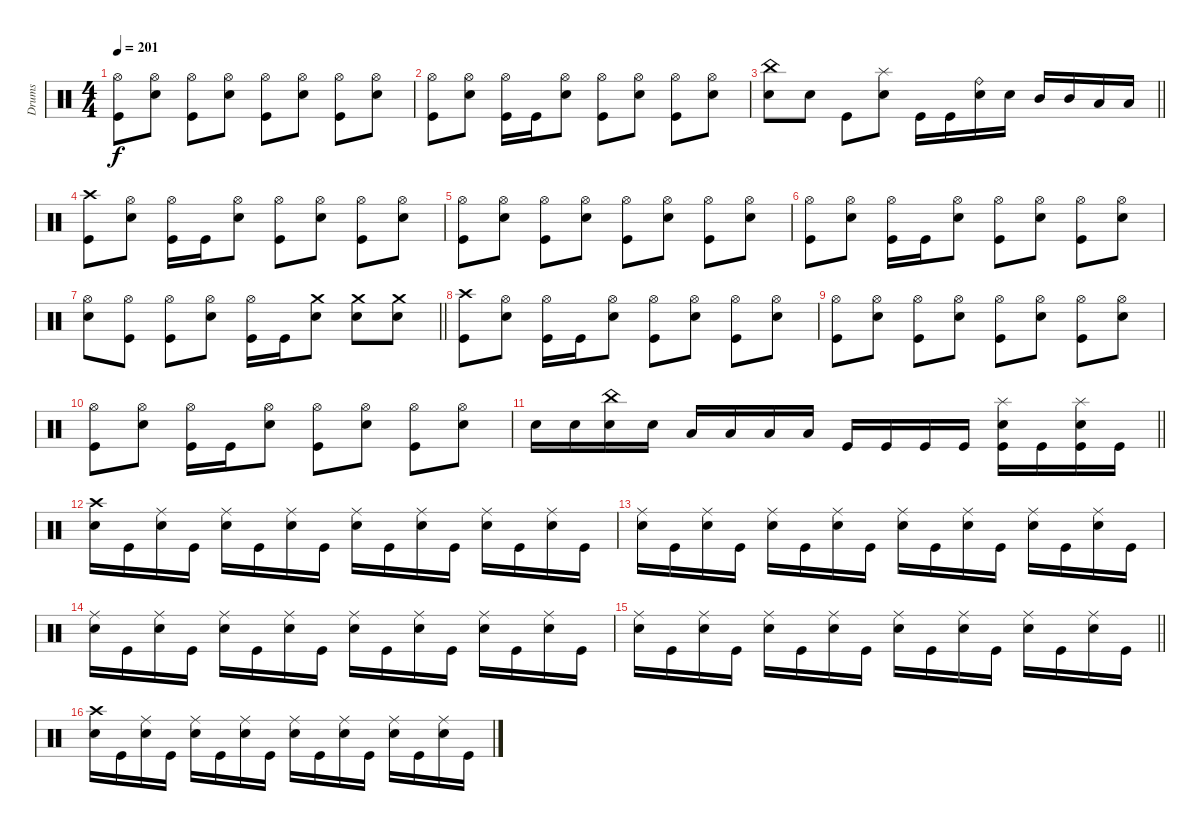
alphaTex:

\track ("Drums" "Drums") {instrument percussion}
\staff
\articulation defaults
\ts (4 4)
\tempo 201
\clef neutral
\ks c
("Hi-Hat (open)" "Kick (hit)").8{dy f} ("Hi-Hat (open)" "Electric Snare (hit)").8 ("Hi-Hat (open)" "Kick (hit)").8 ("Hi-Hat (open)" "Electric Snare (hit)").8 ("Hi-Hat (open)" "Kick (hit)").8 ("Hi-Hat (open)" "Electric Snare (hit)").8 ("Hi-Hat (open)" "Kick (hit)").8 ("Hi-Hat (open)" "Electric Snare (hit)").8 |
("Hi-Hat (open)" "Kick (hit)").8 ("Hi-Hat (open)" "Electric Snare (hit)").8 ("Hi-Hat (open)" "Kick (hit)").16 "Kick (hit)".16 ("Hi-Hat (open)" "Electric Snare (hit)").8 ("Hi-Hat (open)" "Kick (hit)").8 ("Hi-Hat (open)" "Electric Snare (hit)").8 ("Hi-Hat (open)" "Kick (hit)").8 ("Hi-Hat (open)" "Electric Snare (hit)").8 |
\barLineRight lightlight
("China (hit)" "Electric Snare (hit)").8 "Electric Snare (hit)".8 "Kick (hit)".8 ("Splash (hit)" "Electric Snare (hit)").8 "Kick (hit)".16 "Kick (hit)".16 ("Ride (bell)" "Electric Snare (hit)").16 "Electric Snare (hit)".16 "Mid Tom (hit)".16 "Mid Tom (hit)".16 "Low Tom (hit)".16 "Low Tom (hit)".16 |
("Crash high (hit)" "Kick (hit)").8 ("Hi-Hat (open)" "Electric Snare (hit)").8 ("Hi-Hat (open)" "Kick (hit)").16 "Kick (hit)".16 ("Hi-Hat (open)" "Electric Snare (hit)").8 ("Hi-Hat (open)" "Kick (hit)").8 ("Hi-Hat (open)" "Electric Snare (hit)").8 ("Hi-Hat (open)" "Kick (hit)").8 ("Hi-Hat (open)" "Electric Snare (hit)").8 |
("Hi-Hat (open)" "Kick (hit)").8 ("Hi-Hat (open)" "Electric Snare (hit)").8 ("Hi-Hat (open)" "Kick (hit)").8 ("Hi-Hat (open)" "Electric Snare (hit)").8 ("Hi-Hat (open)" "Kick (hit)").8 ("Hi-Hat (open)" "Electric Snare (hit)").8 ("Hi-Hat (open)" "Kick (hit)").8 ("Hi-Hat (open)" "Electric Snare (hit)").8 |
("Hi-Hat (open)" "Kick (hit)").8 ("Hi-Hat (open)" "Electric Snare (hit)").8 ("Hi-Hat (open)" "Kick (hit)").16 "Kick (hit)".16 ("Hi-Hat (open)" "Electric Snare (hit)").8 ("Hi-Hat (open)" "Kick (hit)").8 ("Hi-Hat (open)" "Electric Snare (hit)").8 ("Hi-Hat (open)" "Kick (hit)").8 ("Hi-Hat (open)" "Electric Snare (hit)").8 |
\barLineRight lightlight
("Hi-Hat (open)" "Electric Snare (hit)").8 ("Hi-Hat (open)" "Kick (hit)").8 ("Hi-Hat (open)" "Kick (hit)").8 ("Hi-Hat (open)" "Electric Snare (hit)").8 ("Hi-Hat (open)" "Kick (hit)").16 "Kick (hit)".16 ("Crash medium (hit)" "Electric Snare (hit)").8 ("Crash medium (hit)" "Electric Snare (hit)").8 ("Crash medium (hit)" "Electric Snare (hit)").8 |
("Crash high (hit)" "Kick (hit)").8 ("Hi-Hat (open)" "Electric Snare (hit)").8 ("Hi-Hat (open)" "Kick (hit)").16 "Kick (hit)".16 ("Hi-Hat (open)" "Electric Snare (hit)").8 ("Hi-Hat (open)" "Kick (hit)").8 ("Hi-Hat (open)" "Electric Snare (hit)").8 ("Hi-Hat (open)" "Kick (hit)").8 ("Hi-Hat (open)" "Electric Snare (hit)").8 |
("Hi-Hat (open)" "Kick (hit)").8 ("Hi-Hat (open)" "Electric Snare (hit)").8 ("Hi-Hat (open)" "Kick (hit)").8 ("Hi-Hat (open)" "Electric Snare (hit)").8 ("Hi-Hat (open)" "Kick (hit)").8 ("Hi-Hat (open)" "Electric Snare (hit)").8 ("Hi-Hat (open)" "Kick (hit)").8 ("Hi-Hat (open)" "Electric Snare (hit)").8 |
("Hi-Hat (open)" "Kick (hit)").8 ("Hi-Hat (open)" "Electric Snare (hit)").8 ("Hi-Hat (open)" "Kick (hit)").16 "Kick (hit)".16 ("Hi-Hat (open)" "Electric Snare (hit)").8 ("Hi-Hat (open)" "Kick (hit)").8 ("Hi-Hat (open)" "Electric Snare (hit)").8 ("Hi-Hat (open)" "Kick (hit)").8 ("Hi-Hat (open)" "Electric Snare (hit)").8 |
\barLineRight lightlight "Electric Snare (hit)".16 "Electric Snare (hit)".16
("China (hit)" "Electric Snare (hit)").16 "Electric Snare (hit)".16 "Low Tom (hit)".16 "Low Tom (hit)".16 "Low Tom (hit)".16 "Low Tom (hit)".16 "Kick (hit)".16 "Kick (hit)".16 "Kick (hit)".16 "Kick (hit)".16 ("Splash (hit)" "Electric Snare (hit)" "Kick (hit)").16 "Kick (hit)".16 ("Splash (hit)" "Electric Snare (hit)" "Kick (hit)").16 "Kick (hit)".16 |
\section ("" "")
("Crash high (hit)" "Electric Snare (hit)").16 "Kick (hit)".16 ("Ride (middle)" "Electric Snare (hit)").16 "Kick (hit)".16 ("Ride (middle)" "Electric Snare (hit)").16 "Kick (hit)".16 ("Ride (middle)" "Electric Snare (hit)").16 "Kick (hit)".16 ("Ride (middle)" "Electric Snare (hit)").16 "Kick (hit)".16 ("Ride (middle)" "Electric Snare (hit)").16 "Kick (hit)".16 ("Ride (middle)" "Electric Snare (hit)").16 "Kick (hit)".16 ("Ride (middle)" "Electric Snare (hit)").16 "Kick (hit)".16 |
("Ride (middle)" "Electric Snare (hit)").16 "Kick (hit)".16 ("Ride (middle)" "Electric Snare (hit)").16 "Kick (hit)".16 ("Ride (middle)" "Electric Snare (hit)").16 "Kick (hit)".16 ("Ride (middle)" "Electric Snare (hit)").16 "Kick (hit)".16 ("Ride (middle)" "Electric Snare (hit)").16 "Kick (hit)".16 ("Ride (middle)" "Electric Snare (hit)").16 "Kick (hit)".16 ("Ride (middle)" "Electric Snare (hit)").16 "Kick (hit)".16 ("Ride (middle)" "Electric Snare (hit)").16 "Kick (hit)".16 |
("Ride (middle)" "Electric Snare (hit)").16 "Kick (hit)".16 ("Ride (middle)" "Electric Snare (hit)").16 "Kick (hit)".16 ("Ride (middle)" "Electric Snare (hit)").16 "Kick (hit)".16 ("Ride (middle)" "Electric Snare (hit)").16 "Kick (hit)".16 ("Ride (middle)" "Electric Snare (hit)").16 "Kick (hit)".16 ("Ride (middle)" "Electric Snare (hit)").16 "Kick (hit)".16 ("Ride (middle)" "Electric Snare (hit)").16 "Kick (hit)".16 ("Ride (middle)" "Electric Snare (hit)").16 "Kick (hit)".16 |
\barLineRight lightlight
("Ride (middle)" "Electric Snare (hit)").16 "Kick (hit)".16 ("Ride (middle)" "Electric Snare (hit)").16 "Kick (hit)".16 ("Ride (middle)" "Electric Snare (hit)").16 "Kick (hit)".16 ("Ride (middle)" "Electric Snare (hit)").16 "Kick (hit)".16 ("Ride (middle)" "Electric Snare (hit)").16 "Kick (hit)".16 ("Ride (middle)" "Electric Snare (hit)").16 "Kick (hit)".16 ("Ride (middle)" "Electric Snare (hit)").16 "Kick (hit)".16 ("Ride (middle)" "Electric Snare (hit)").16 "Kick (hit)".16 |
("Crash high (hit)" "Electric Snare (hit)").16 "Kick (hit)".16 ("Ride (middle)" "Electric Snare (hit)").16 "Kick (hit)".16 ("Ride (middle)" "Electric Snare (hit)").16 "Kick (hit)".16 ("Ride (middle)" "Electric Snare (hit)").16 "Kick (hit)".16 ("Ride (middle)" "Electric Snare (hit)").16 "Kick (hit)".16 ("Ride (middle)" "Electric Snare (hit)").16 "Kick (hit)".16 ("Ride (middle)" "Electric Snare (hit)").16 "Kick (hit)".16 ("Ride (middle)" "Electric Snare (hit)").16 "Kick (hit)".16
